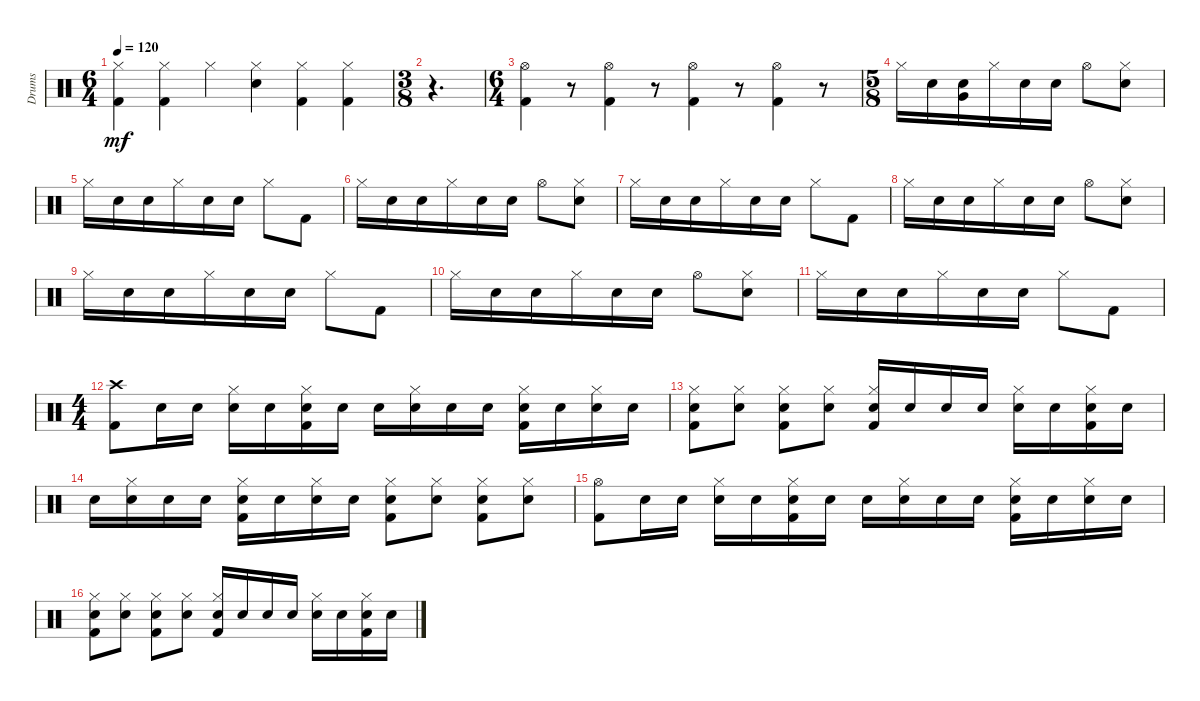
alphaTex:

\track ("Drums" "Drums") {instrument percussion}
\staff {score}
\articulation defaults
\ts (6 4)
\tempo 120
\clef neutral
\ks c
("Kick (hit) 2" "Hi-Hat (closed)").4{dy mf} ("Kick (hit) 2" "Hi-Hat (closed)").4 "Hi-Hat (closed)".4 ("Snare (hit) 2" "Hi-Hat (closed)").4 ("Kick (hit) 2" "Hi-Hat (closed)").4 ("Kick (hit) 2" "Hi-Hat (closed)").4 |
\ts (3 8)
r.4{d} |
\ts (6 4)
("Kick (hit) 2" "Hi-Hat (open)").4 r.8 ("Kick (hit) 2" "Hi-Hat (open)").4 r.8 ("Kick (hit) 2" "Hi-Hat (open)").4 r.8 ("Kick (hit) 2" "Hi-Hat (open)").4 r.8 |
\ts (5 8)
"Hi-Hat (closed)".16 "Snare (hit) 2".16 ("Snare (hit) 2" "Very Low Tom (hit)").16 "Hi-Hat (closed)".16 "Snare (hit) 2".16 "Snare (hit) 2".16 "Hi-Hat (open)".8 ("Snare (hit) 2" "Hi-Hat (closed)").8 |
"Hi-Hat (closed)".16 "Snare (hit) 2".16 "Snare (hit) 2".16 "Hi-Hat (closed)".16 "Snare (hit) 2".16 "Snare (hit) 2".16 "Hi-Hat (closed)".8 "Kick (hit) 2".8 |
"Hi-Hat (closed)".16 "Snare (hit) 2".16 "Snare (hit) 2".16 "Hi-Hat (closed)".16 "Snare (hit) 2".16 "Snare (hit) 2".16 "Hi-Hat (open)".8 ("Snare (hit) 2" "Hi-Hat (closed)").8 |
"Hi-Hat (closed)".16 "Snare (hit) 2".16 "Snare (hit) 2".16 "Hi-Hat (closed)".16 "Snare (hit) 2".16 "Snare (hit) 2".16 "Hi-Hat (closed)".8 "Kick (hit) 2".8 |
"Hi-Hat (closed)".16 "Snare (hit) 2".16 "Snare (hit) 2".16 "Hi-Hat (closed)".16 "Snare (hit) 2".16 "Snare (hit) 2".16 "Hi-Hat (open)".8 ("Snare (hit) 2" "Hi-Hat (closed)").8 |
"Hi-Hat (closed)".16 "Snare (hit) 2".16 "Snare (hit) 2".16 "Hi-Hat (closed)".16 "Snare (hit) 2".16 "Snare (hit) 2".16 "Hi-Hat (closed)".8 "Kick (hit) 2".8 |
"Hi-Hat (closed)".16 "Snare (hit) 2".16 "Snare (hit) 2".16 "Hi-Hat (closed)".16 "Snare (hit) 2".16 "Snare (hit) 2".16 "Hi-Hat (open)".8 ("Snare (hit) 2" "Hi-Hat (closed)").8 |
"Hi-Hat (closed)".16 "Snare (hit) 2".16 "Snare (hit) 2".16 "Hi-Hat (closed)".16 "Snare (hit) 2".16 "Snare (hit) 2".16 "Hi-Hat (closed)".8 "Kick (hit) 2".8 |
\ts (4 4)
("Kick (hit) 2" "Crash high (hit)").8 "Electric Snare (hit)".16 "Electric Snare (hit)".16 ("Electric Snare (hit)" "Hi-Hat (closed)").16 "Electric Snare (hit)".16 ("Kick (hit) 2" "Electric Snare (hit)" "Hi-Hat (closed)").16 "Electric Snare (hit)".16 "Electric Snare (hit)".16 ("Electric Snare (hit)" "Hi-Hat (closed)").16 "Electric Snare (hit)".16 "Electric Snare (hit)".16 ("Kick (hit) 2" "Electric Snare (hit)" "Hi-Hat (closed)").16 "Electric Snare (hit)".16 ("Electric Snare (hit)" "Hi-Hat (closed)").16 "Electric Snare (hit)".16 |
("Kick (hit) 2" "Electric Snare (hit)" "Hi-Hat (closed)").8 ("Electric Snare (hit)" "Hi-Hat (closed)").8 ("Kick (hit) 2" "Electric Snare (hit)" "Hi-Hat (closed)").8 ("Electric Snare (hit)" "Hi-Hat (closed)").8 ("Kick (hit) 2" "Electric Snare (hit)" "Hi-Hat (closed)").16 "Electric Snare (hit)".16 "Electric Snare (hit)".16 "Electric Snare (hit)".16 ("Electric Snare (hit)" "Hi-Hat (closed)").16 "Electric Snare (hit)".16 ("Kick (hit) 2" "Electric Snare (hit)" "Hi-Hat (closed)").16 "Electric Snare (hit)".16 |
"Electric Snare (hit)".16 ("Electric Snare (hit)" "Hi-Hat (closed)").16 "Electric Snare (hit)".16 "Electric Snare (hit)".16 ("Kick (hit) 2" "Electric Snare (hit)" "Hi-Hat (closed)").16 "Electric Snare (hit)".16 ("Electric Snare (hit)" "Hi-Hat (closed)").16 "Electric Snare (hit)".16 ("Kick (hit) 2" "Electric Snare (hit)" "Hi-Hat (closed)").8 ("Electric Snare (hit)" "Hi-Hat (closed)").8 ("Kick (hit) 2" "Electric Snare (hit)" "Hi-Hat (closed)").8 ("Electric Snare (hit)" "Hi-Hat (closed)").8 |
("Kick (hit) 2" "Hi-Hat (open)").8 "Electric Snare (hit)".16 "Electric Snare (hit)".16 ("Electric Snare (hit)" "Hi-Hat (closed)").16 "Electric Snare (hit)".16 ("Kick (hit) 2" "Electric Snare (hit)" "Hi-Hat (closed)").16 "Electric Snare (hit)".16 "Electric Snare (hit)".16 ("Electric Snare (hit)" "Hi-Hat (closed)").16 "Electric Snare (hit)".16 "Electric Snare (hit)".16 ("Kick (hit) 2" "Electric Snare (hit)" "Hi-Hat (closed)").16 "Electric Snare (hit)".16 ("Electric Snare (hit)" "Hi-Hat (closed)").16 "Electric Snare (hit)".16 |
("Kick (hit) 2" "Electric Snare (hit)" "Hi-Hat (closed)").8 ("Electric Snare (hit)" "Hi-Hat (closed)").8 ("Kick (hit) 2" "Electric Snare (hit)" "Hi-Hat (closed)").8 ("Electric Snare (hit)" "Hi-Hat (closed)").8 ("Kick (hit) 2" "Electric Snare (hit)" "Hi-Hat (closed)").16 "Electric Snare (hit)".16 "Electric Snare (hit)".16 "Electric Snare (hit)".16 ("Electric Snare (hit)" "Hi-Hat (closed)").16 "Electric Snare (hit)".16 ("Kick (hit) 2" "Electric Snare (hit)" "Hi-Hat (closed)").16 "Electric Snare (hit)".16
